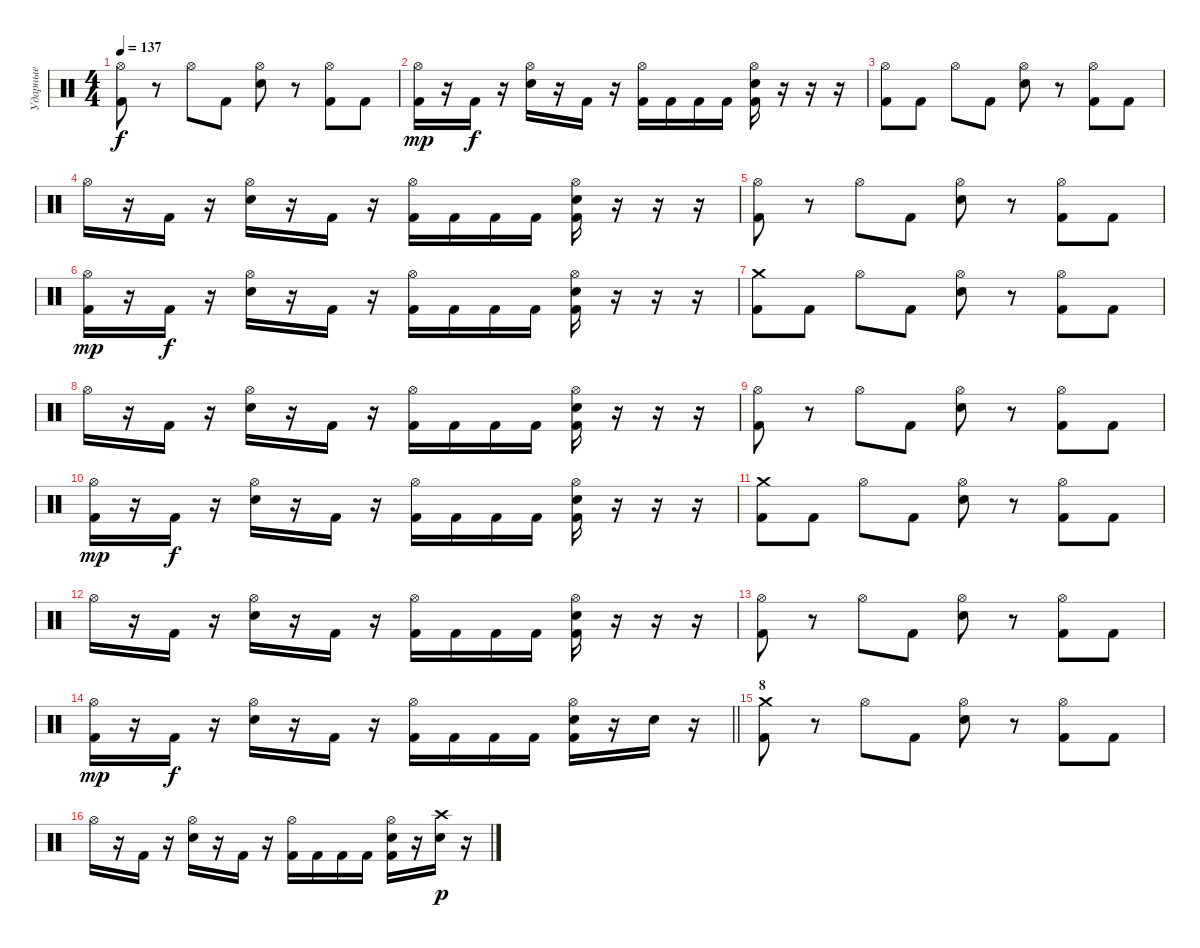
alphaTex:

\track ("Ударные" "Ударные") {instrument percussion}
\staff {score}
\articulation defaults
\ts (4 4)
\tempo 137
\clef neutral
\ks c
("Hi-Hat (open)" "Kick (hit) 2").8{dy f} r.8 "Hi-Hat (open)".8 "Kick (hit) 2".8 ("Hi-Hat (open)" "Snare (hit) 2").8 r.8 ("Hi-Hat (open)" "Kick (hit) 2").8 "Kick (hit) 2".8 |
("Hi-Hat (open)" "Kick (hit) 2").16{dy mp} r.16 "Kick (hit) 2".16{dy f} r.16 ("Hi-Hat (open)" "Snare (hit) 2").16 r.16 "Kick (hit) 2".16 r.16 ("Hi-Hat (open)" "Kick (hit) 2").16 "Kick (hit) 2".16 "Kick (hit) 2".16 "Kick (hit) 2".16 ("Hi-Hat (open)" "Snare (hit) 2" "Kick (hit) 2").16 r.16 r.16 r.16 |
("Hi-Hat (open)" "Kick (hit) 2").8 "Kick (hit) 2".8 "Hi-Hat (open)".8 "Kick (hit) 2".8 ("Hi-Hat (open)" "Snare (hit) 2").8 r.8 ("Hi-Hat (open)" "Kick (hit) 2").8 "Kick (hit) 2".8 |
"Hi-Hat (open)".16 r.16 "Kick (hit) 2".16 r.16 ("Hi-Hat (open)" "Snare (hit) 2").16 r.16 "Kick (hit) 2".16 r.16 ("Hi-Hat (open)" "Kick (hit) 2").16 "Kick (hit) 2".16 "Kick (hit) 2".16 "Kick (hit) 2".16 ("Hi-Hat (open)" "Snare (hit) 2" "Kick (hit) 2").16 r.16 r.16 r.16 |
("Hi-Hat (open)" "Kick (hit) 2").8 r.8 "Hi-Hat (open)".8 "Kick (hit) 2".8 ("Hi-Hat (open)" "Snare (hit) 2").8 r.8 ("Hi-Hat (open)" "Kick (hit) 2").8 "Kick (hit) 2".8 |
("Hi-Hat (open)" "Kick (hit) 2").16{dy mp} r.16 "Kick (hit) 2".16{dy f} r.16 ("Hi-Hat (open)" "Snare (hit) 2").16 r.16 "Kick (hit) 2".16 r.16 ("Hi-Hat (open)" "Kick (hit) 2").16 "Kick (hit) 2".16 "Kick (hit) 2".16 "Kick (hit) 2".16 ("Hi-Hat (open)" "Snare (hit) 2" "Kick (hit) 2").16 r.16 r.16 r.16 |
("Crash medium (hit)" "Kick (hit) 2").8 "Kick (hit) 2".8 "Hi-Hat (open)".8 "Kick (hit) 2".8 ("Hi-Hat (open)" "Snare (hit) 2").8 r.8 ("Hi-Hat (open)" "Kick (hit) 2").8 "Kick (hit) 2".8 |
"Hi-Hat (open)".16 r.16 "Kick (hit) 2".16 r.16 ("Hi-Hat (open)" "Snare (hit) 2").16 r.16 "Kick (hit) 2".16 r.16 ("Hi-Hat (open)" "Kick (hit) 2").16 "Kick (hit) 2".16 "Kick (hit) 2".16 "Kick (hit) 2".16 ("Hi-Hat (open)" "Snare (hit) 2" "Kick (hit) 2").16 r.16 r.16 r.16 |
("Hi-Hat (open)" "Kick (hit) 2").8 r.8 "Hi-Hat (open)".8 "Kick (hit) 2".8 ("Hi-Hat (open)" "Snare (hit) 2").8 r.8 ("Hi-Hat (open)" "Kick (hit) 2").8 "Kick (hit) 2".8 |
("Hi-Hat (open)" "Kick (hit) 2").16{dy mp} r.16 "Kick (hit) 2".16{dy f} r.16 ("Hi-Hat (open)" "Snare (hit) 2").16 r.16 "Kick (hit) 2".16 r.16 ("Hi-Hat (open)" "Kick (hit) 2").16 "Kick (hit) 2".16 "Kick (hit) 2".16 "Kick (hit) 2".16 ("Hi-Hat (open)" "Snare (hit) 2" "Kick (hit) 2").16 r.16 r.16 r.16 |
("Crash medium (hit)" "Kick (hit) 2").8 "Kick (hit) 2".8 "Hi-Hat (open)".8 "Kick (hit) 2".8 ("Hi-Hat (open)" "Snare (hit) 2").8 r.8 ("Hi-Hat (open)" "Kick (hit) 2").8 "Kick (hit) 2".8 |
"Hi-Hat (open)".16 r.16 "Kick (hit) 2".16 r.16 ("Hi-Hat (open)" "Snare (hit) 2").16 r.16 "Kick (hit) 2".16 r.16 ("Hi-Hat (open)" "Kick (hit) 2").16 "Kick (hit) 2".16 "Kick (hit) 2".16 "Kick (hit) 2".16 ("Hi-Hat (open)" "Snare (hit) 2" "Kick (hit) 2").16 r.16 r.16 r.16 |
("Hi-Hat (open)" "Kick (hit) 2").8 r.8 "Hi-Hat (open)".8 "Kick (hit) 2".8 ("Hi-Hat (open)" "Snare (hit) 2").8 r.8 ("Hi-Hat (open)" "Kick (hit) 2").8 "Kick (hit) 2".8 |
\barLineRight lightlight
("Hi-Hat (open)" "Kick (hit) 2").16{dy mp} r.16 "Kick (hit) 2".16{dy f} r.16 ("Hi-Hat (open)" "Snare (hit) 2").16 r.16 "Kick (hit) 2".16 r.16 ("Hi-Hat (open)" "Kick (hit) 2").16 "Kick (hit) 2".16 "Kick (hit) 2".16 "Kick (hit) 2".16 ("Hi-Hat (open)" "Snare (hit) 2" "Kick (hit) 2").16 r.16 "Snare (hit) 2".16 r.16 |
\section ("" "8")
("Crash medium (hit)" "Kick (hit) 2").8 r.8 "Hi-Hat (open)".8 "Kick (hit) 2".8 ("Hi-Hat (open)" "Snare (hit) 2").8 r.8 ("Hi-Hat (open)" "Kick (hit) 2").8 "Kick (hit) 2".8 |
"Hi-Hat (open)".16 r.16 "Kick (hit) 2".16 r.16 ("Hi-Hat (open)" "Snare (hit) 2").16 r.16 "Kick (hit) 2".16 r.16 ("Hi-Hat (open)" "Kick (hit) 2").16 "Kick (hit) 2".16 "Kick (hit) 2".16 "Kick (hit) 2".16 ("Hi-Hat (open)" "Snare (hit) 2" "Kick (hit) 2").16 r.16 ("Crash high (hit)" "Snare (hit) 2").16{dy p} r.16
